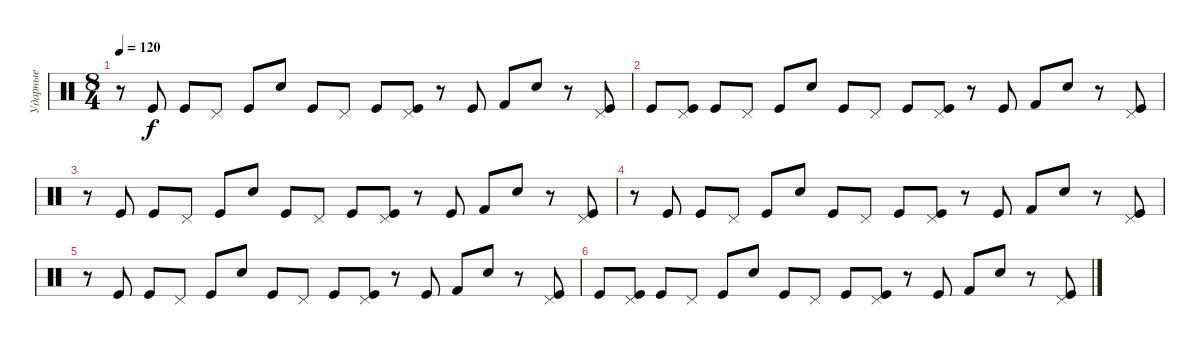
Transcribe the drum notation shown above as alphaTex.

\track ("Ударные" "Ударные") {instrument percussion}
\staff {score}
\articulation defaults
\ts (8 4)
\tempo 120
\clef neutral
\ks c
r.8{dy f} "Kick (hit)".8 "Kick (hit)".8 "Pedal Hi-Hat (hit)".8 "Kick (hit)".8 "Electric Snare (hit)".8 "Kick (hit)".8 "Pedal Hi-Hat (hit)".8 "Kick (hit)".8 ("Pedal Hi-Hat (hit)" "Kick (hit)").8 r.8 "Kick (hit)".8 "Kick (hit) 2".8 "Electric Snare (hit)".8 r.8 ("Pedal Hi-Hat (hit)" "Kick (hit)").8 |
"Kick (hit)".8 ("Pedal Hi-Hat (hit)" "Kick (hit)").8 "Kick (hit)".8 "Pedal Hi-Hat (hit)".8 "Kick (hit)".8 "Electric Snare (hit)".8 "Kick (hit)".8 "Pedal Hi-Hat (hit)".8 "Kick (hit)".8 ("Pedal Hi-Hat (hit)" "Kick (hit)").8 r.8 "Kick (hit)".8 "Kick (hit) 2".8 "Electric Snare (hit)".8 r.8 ("Pedal Hi-Hat (hit)" "Kick (hit)").8 |
r.8 "Kick (hit)".8 "Kick (hit)".8 "Pedal Hi-Hat (hit)".8 "Kick (hit)".8 "Electric Snare (hit)".8 "Kick (hit)".8 "Pedal Hi-Hat (hit)".8 "Kick (hit)".8 ("Pedal Hi-Hat (hit)" "Kick (hit)").8 r.8 "Kick (hit)".8 "Kick (hit) 2".8 "Electric Snare (hit)".8 r.8 ("Pedal Hi-Hat (hit)" "Kick (hit)").8 |
r.8 "Kick (hit)".8 "Kick (hit)".8 "Pedal Hi-Hat (hit)".8 "Kick (hit)".8 "Electric Snare (hit)".8 "Kick (hit)".8 "Pedal Hi-Hat (hit)".8 "Kick (hit)".8 ("Pedal Hi-Hat (hit)" "Kick (hit)").8 r.8 "Kick (hit)".8 "Kick (hit) 2".8 "Electric Snare (hit)".8 r.8 ("Pedal Hi-Hat (hit)" "Kick (hit)").8 |
r.8 "Kick (hit)".8 "Kick (hit)".8 "Pedal Hi-Hat (hit)".8 "Kick (hit)".8 "Electric Snare (hit)".8 "Kick (hit)".8 "Pedal Hi-Hat (hit)".8 "Kick (hit)".8 ("Pedal Hi-Hat (hit)" "Kick (hit)").8 r.8 "Kick (hit)".8 "Kick (hit) 2".8 "Electric Snare (hit)".8 r.8 ("Pedal Hi-Hat (hit)" "Kick (hit)").8 |
"Kick (hit)".8 ("Pedal Hi-Hat (hit)" "Kick (hit)").8 "Kick (hit)".8 "Pedal Hi-Hat (hit)".8 "Kick (hit)".8 "Electric Snare (hit)".8 "Kick (hit)".8 "Pedal Hi-Hat (hit)".8 "Kick (hit)".8 ("Pedal Hi-Hat (hit)" "Kick (hit)").8 r.8 "Kick (hit)".8 "Kick (hit) 2".8 "Electric Snare (hit)".8 r.8 ("Pedal Hi-Hat (hit)" "Kick (hit)").8
